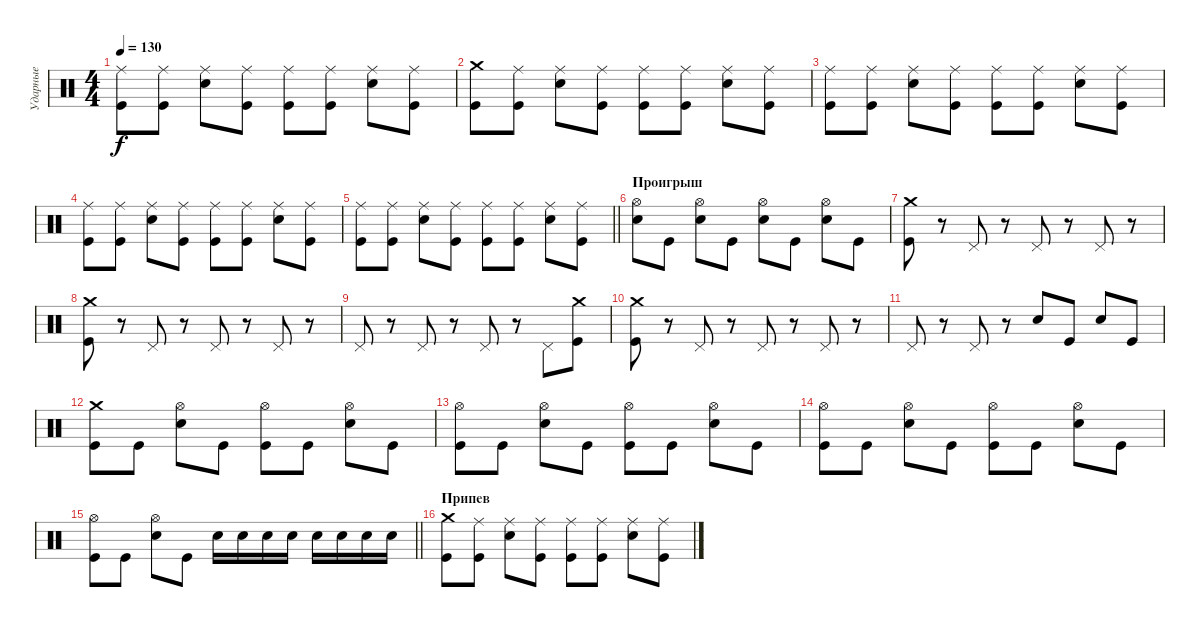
\track ("Ударные" "Ударные") {instrument percussion}
\staff {score}
\articulation defaults
\ts (4 4)
\tempo 130
\clef neutral
\ks c
("Ride (middle)" "Kick (hit)").8{dy f} ("Ride (middle)" "Kick (hit)").8 ("Ride (middle)" "Electric Snare (hit)").8 ("Ride (middle)" "Kick (hit)").8 ("Ride (middle)" "Kick (hit)").8 ("Ride (middle)" "Kick (hit)").8 ("Ride (middle)" "Electric Snare (hit)").8 ("Ride (middle)" "Kick (hit)").8 |
("Crash medium (hit)" "Kick (hit)").8 ("Ride (middle)" "Kick (hit)").8 ("Ride (middle)" "Electric Snare (hit)").8 ("Ride (middle)" "Kick (hit)").8 ("Ride (middle)" "Kick (hit)").8 ("Ride (middle)" "Kick (hit)").8 ("Ride (middle)" "Electric Snare (hit)").8 ("Ride (middle)" "Kick (hit)").8 |
("Ride (middle)" "Kick (hit)").8 ("Ride (middle)" "Kick (hit)").8 ("Ride (middle)" "Electric Snare (hit)").8 ("Ride (middle)" "Kick (hit)").8 ("Ride (middle)" "Kick (hit)").8 ("Ride (middle)" "Kick (hit)").8 ("Ride (middle)" "Electric Snare (hit)").8 ("Ride (middle)" "Kick (hit)").8 |
("Ride (middle)" "Kick (hit)").8 ("Ride (middle)" "Kick (hit)").8 ("Ride (middle)" "Electric Snare (hit)").8 ("Ride (middle)" "Kick (hit)").8 ("Ride (middle)" "Kick (hit)").8 ("Ride (middle)" "Kick (hit)").8 ("Ride (middle)" "Electric Snare (hit)").8 ("Ride (middle)" "Kick (hit)").8 |
\barLineRight lightlight
("Ride (middle)" "Kick (hit)").8 ("Ride (middle)" "Kick (hit)").8 ("Ride (middle)" "Electric Snare (hit)").8 ("Ride (middle)" "Kick (hit)").8 ("Ride (middle)" "Kick (hit)").8 ("Ride (middle)" "Kick (hit)").8 ("Ride (middle)" "Electric Snare (hit)").8 ("Ride (middle)" "Kick (hit)").8 |
\section ("" "Проигрыш")
("Hi-Hat (open)" "Electric Snare (hit)").8 "Kick (hit)".8 ("Hi-Hat (open)" "Electric Snare (hit)").8 "Kick (hit)".8 ("Hi-Hat (open)" "Electric Snare (hit)").8 "Kick (hit)".8 ("Hi-Hat (open)" "Electric Snare (hit)").8 "Kick (hit)".8 |
("Crash medium (hit)" "Kick (hit)").8 r.8 "Pedal Hi-Hat (hit)".8 r.8 "Pedal Hi-Hat (hit)".8 r.8 "Pedal Hi-Hat (hit)".8 r.8 |
("Crash medium (hit)" "Kick (hit)").8 r.8 "Pedal Hi-Hat (hit)".8 r.8 "Pedal Hi-Hat (hit)".8 r.8 "Pedal Hi-Hat (hit)".8 r.8 |
"Pedal Hi-Hat (hit)".8 r.8 "Pedal Hi-Hat (hit)".8 r.8 "Pedal Hi-Hat (hit)".8 r.8 "Pedal Hi-Hat (hit)".8 ("Crash medium (hit)" "Kick (hit)").8 |
("Crash medium (hit)" "Kick (hit)").8 r.8 "Pedal Hi-Hat (hit)".8 r.8 "Pedal Hi-Hat (hit)".8 r.8 "Pedal Hi-Hat (hit)".8 r.8 |
"Pedal Hi-Hat (hit)".8 r.8 "Pedal Hi-Hat (hit)".8 r.8 "Electric Snare (hit)".8 "Kick (hit)".8 "Electric Snare (hit)".8 "Kick (hit)".8 |
("Crash medium (hit)" "Kick (hit)").8 "Kick (hit)".8 ("Hi-Hat (open)" "Electric Snare (hit)").8 "Kick (hit)".8 ("Hi-Hat (open)" "Kick (hit)").8 "Kick (hit)".8 ("Hi-Hat (open)" "Electric Snare (hit)").8 "Kick (hit)".8 |
("Hi-Hat (open)" "Kick (hit)").8 "Kick (hit)".8 ("Hi-Hat (open)" "Electric Snare (hit)").8 "Kick (hit)".8 ("Hi-Hat (open)" "Kick (hit)").8 "Kick (hit)".8 ("Hi-Hat (open)" "Electric Snare (hit)").8 "Kick (hit)".8 |
("Hi-Hat (open)" "Kick (hit)").8 "Kick (hit)".8 ("Hi-Hat (open)" "Electric Snare (hit)").8 "Kick (hit)".8 ("Hi-Hat (open)" "Kick (hit)").8 "Kick (hit)".8 ("Hi-Hat (open)" "Electric Snare (hit)").8 "Kick (hit)".8 |
\barLineRight lightlight
("Hi-Hat (open)" "Kick (hit)").8 "Kick (hit)".8 ("Hi-Hat (open)" "Electric Snare (hit)").8 "Kick (hit)".8 "Electric Snare (hit)".16 "Electric Snare (hit)".16 "Electric Snare (hit)".16 "Electric Snare (hit)".16 "Electric Snare (hit)".16 "Electric Snare (hit)".16 "Electric Snare (hit)".16 "Electric Snare (hit)".16 |
\section ("" "Припев")
("Crash medium (hit)" "Kick (hit)").8 ("Ride (middle)" "Kick (hit)").8 ("Ride (middle)" "Electric Snare (hit)").8 ("Ride (middle)" "Kick (hit)").8 ("Ride (middle)" "Kick (hit)").8 ("Ride (middle)" "Kick (hit)").8 ("Ride (middle)" "Electric Snare (hit)").8 ("Ride (middle)" "Kick (hit)").8
